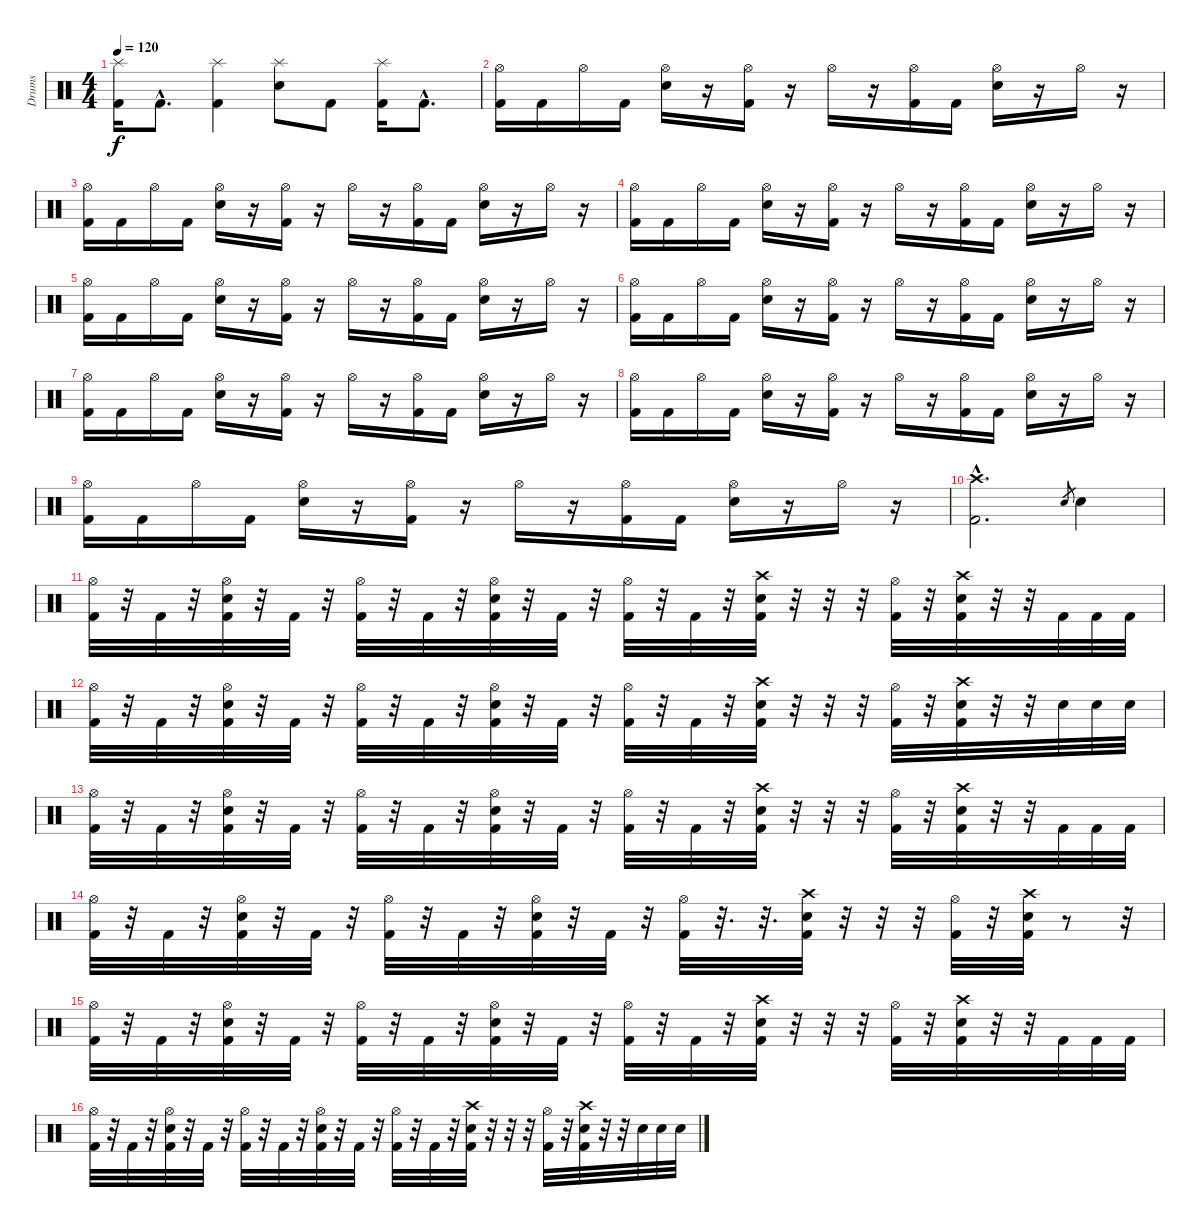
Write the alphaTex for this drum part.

\track ("Drums" "Drums") {instrument percussion}
\staff {score}
\articulation defaults
\ts (4 4)
\tempo 120
\clef neutral
\ks c
("Splash (hit)" "Kick (hit) 2").16{dy f} "Kick (hit) 2"{hac}.8{d} ("Splash (hit)" "Kick (hit) 2").4 ("Splash (hit)" "Snare (hit) 2").8 "Kick (hit) 2".8 ("Splash (hit)" "Kick (hit) 2").16 "Kick (hit) 2"{hac}.8{d} |
("Hi-Hat (open)" "Kick (hit) 2").16 "Kick (hit) 2".16 "Hi-Hat (open)".16 "Kick (hit) 2".16 ("Hi-Hat (open)" "Snare (hit) 2").16 r.16 ("Hi-Hat (open)" "Kick (hit) 2").16 r.16 "Hi-Hat (open)".16 r.16 ("Hi-Hat (open)" "Kick (hit) 2").16 "Kick (hit) 2".16 ("Hi-Hat (open)" "Snare (hit) 2").16 r.16 "Hi-Hat (open)".16 r.16 |
("Hi-Hat (open)" "Kick (hit) 2").16 "Kick (hit) 2".16 "Hi-Hat (open)".16 "Kick (hit) 2".16 ("Hi-Hat (open)" "Snare (hit) 2").16 r.16 ("Hi-Hat (open)" "Kick (hit) 2").16 r.16 "Hi-Hat (open)".16 r.16 ("Hi-Hat (open)" "Kick (hit) 2").16 "Kick (hit) 2".16 ("Hi-Hat (open)" "Snare (hit) 2").16 r.16 "Hi-Hat (open)".16 r.16 |
("Hi-Hat (open)" "Kick (hit) 2").16 "Kick (hit) 2".16 "Hi-Hat (open)".16 "Kick (hit) 2".16 ("Hi-Hat (open)" "Snare (hit) 2").16 r.16 ("Hi-Hat (open)" "Kick (hit) 2").16 r.16 "Hi-Hat (open)".16 r.16 ("Hi-Hat (open)" "Kick (hit) 2").16 "Kick (hit) 2".16 ("Hi-Hat (open)" "Snare (hit) 2").16 r.16 "Hi-Hat (open)".16 r.16 |
("Hi-Hat (open)" "Kick (hit) 2").16 "Kick (hit) 2".16 "Hi-Hat (open)".16 "Kick (hit) 2".16 ("Hi-Hat (open)" "Snare (hit) 2").16 r.16 ("Hi-Hat (open)" "Kick (hit) 2").16 r.16 "Hi-Hat (open)".16 r.16 ("Hi-Hat (open)" "Kick (hit) 2").16 "Kick (hit) 2".16 ("Hi-Hat (open)" "Snare (hit) 2").16 r.16 "Hi-Hat (open)".16 r.16 |
("Hi-Hat (open)" "Kick (hit) 2").16 "Kick (hit) 2".16 "Hi-Hat (open)".16 "Kick (hit) 2".16 ("Hi-Hat (open)" "Snare (hit) 2").16 r.16 ("Hi-Hat (open)" "Kick (hit) 2").16 r.16 "Hi-Hat (open)".16 r.16 ("Hi-Hat (open)" "Kick (hit) 2").16 "Kick (hit) 2".16 ("Hi-Hat (open)" "Snare (hit) 2").16 r.16 "Hi-Hat (open)".16 r.16 |
("Hi-Hat (open)" "Kick (hit) 2").16 "Kick (hit) 2".16 "Hi-Hat (open)".16 "Kick (hit) 2".16 ("Hi-Hat (open)" "Snare (hit) 2").16 r.16 ("Hi-Hat (open)" "Kick (hit) 2").16 r.16 "Hi-Hat (open)".16 r.16 ("Hi-Hat (open)" "Kick (hit) 2").16 "Kick (hit) 2".16 ("Hi-Hat (open)" "Snare (hit) 2").16 r.16 "Hi-Hat (open)".16 r.16 |
("Hi-Hat (open)" "Kick (hit) 2").16 "Kick (hit) 2".16 "Hi-Hat (open)".16 "Kick (hit) 2".16 ("Hi-Hat (open)" "Snare (hit) 2").16 r.16 ("Hi-Hat (open)" "Kick (hit) 2").16 r.16 "Hi-Hat (open)".16 r.16 ("Hi-Hat (open)" "Kick (hit) 2").16 "Kick (hit) 2".16 ("Hi-Hat (open)" "Snare (hit) 2").16 r.16 "Hi-Hat (open)".16 r.16 |
("Hi-Hat (open)" "Kick (hit) 2").16 "Kick (hit) 2".16 "Hi-Hat (open)".16 "Kick (hit) 2".16 ("Hi-Hat (open)" "Snare (hit) 2").16 r.16 ("Hi-Hat (open)" "Kick (hit) 2").16 r.16 "Hi-Hat (open)".16 r.16 ("Hi-Hat (open)" "Kick (hit) 2").16 "Kick (hit) 2".16 ("Hi-Hat (open)" "Snare (hit) 2").16 r.16 "Hi-Hat (open)".16 r.16 |
("Crash high (hit)"{hac} "Kick (hit) 2"{hac}).2{d} "Snare (hit) 2".8{gr} "Snare (hit) 2".4 |
("Hi-Hat (open)" "Kick (hit) 2").32 r.32 "Kick (hit) 2".32 r.32 ("Hi-Hat (open)" "Snare (hit) 2" "Kick (hit) 2").32 r.32 "Kick (hit) 2".32 r.32 ("Hi-Hat (open)" "Kick (hit) 2").32 r.32 "Kick (hit) 2".32 r.32 ("Hi-Hat (open)" "Snare (hit) 2" "Kick (hit) 2").32 r.32 "Kick (hit) 2".32 r.32 ("Hi-Hat (open)" "Kick (hit) 2").32 r.32 "Kick (hit) 2".32 r.32 ("Crash high (hit)" "Snare (hit) 2" "Kick (hit) 2").32 r.32 r.32 r.32 ("Hi-Hat (open)" "Kick (hit) 2").32 r.32 ("Crash high (hit)" "Snare (hit) 2" "Kick (hit) 2").32 r.32 r.32 "Kick (hit) 2".32 "Kick (hit) 2".32 "Kick (hit) 2".32 |
("Hi-Hat (open)" "Kick (hit) 2").32 r.32 "Kick (hit) 2".32 r.32 ("Hi-Hat (open)" "Snare (hit) 2" "Kick (hit) 2").32 r.32 "Kick (hit) 2".32 r.32 ("Hi-Hat (open)" "Kick (hit) 2").32 r.32 "Kick (hit) 2".32 r.32 ("Hi-Hat (open)" "Snare (hit) 2" "Kick (hit) 2").32 r.32 "Kick (hit) 2".32 r.32 ("Hi-Hat (open)" "Kick (hit) 2").32 r.32 "Kick (hit) 2".32 r.32 ("Crash high (hit)" "Snare (hit) 2" "Kick (hit) 2").32 r.32 r.32 r.32 ("Hi-Hat (open)" "Kick (hit) 2").32 r.32 ("Crash high (hit)" "Snare (hit) 2" "Kick (hit) 2").32 r.32 r.32 "Snare (hit) 2".32 "Snare (hit) 2".32 "Snare (hit) 2".32 |
("Hi-Hat (open)" "Kick (hit) 2").32 r.32 "Kick (hit) 2".32 r.32 ("Hi-Hat (open)" "Snare (hit) 2" "Kick (hit) 2").32 r.32 "Kick (hit) 2".32 r.32 ("Hi-Hat (open)" "Kick (hit) 2").32 r.32 "Kick (hit) 2".32 r.32 ("Hi-Hat (open)" "Snare (hit) 2" "Kick (hit) 2").32 r.32 "Kick (hit) 2".32 r.32 ("Hi-Hat (open)" "Kick (hit) 2").32 r.32 "Kick (hit) 2".32 r.32 ("Crash high (hit)" "Snare (hit) 2" "Kick (hit) 2").32 r.32 r.32 r.32 ("Hi-Hat (open)" "Kick (hit) 2").32 r.32 ("Crash high (hit)" "Snare (hit) 2" "Kick (hit) 2").32 r.32 r.32 "Kick (hit) 2".32 "Kick (hit) 2".32 "Kick (hit) 2".32 |
("Hi-Hat (open)" "Kick (hit) 2").32 r.32 "Kick (hit) 2".32 r.32 ("Hi-Hat (open)" "Snare (hit) 2" "Kick (hit) 2").32 r.32 "Kick (hit) 2".32 r.32 ("Hi-Hat (open)" "Kick (hit) 2").32 r.32 "Kick (hit) 2".32 r.32 ("Hi-Hat (open)" "Snare (hit) 2" "Kick (hit) 2").32 r.32 "Kick (hit) 2".32 r.32 ("Hi-Hat (open)" "Kick (hit) 2").32 r.32{d} r.32{d} ("Crash high (hit)" "Snare (hit) 2" "Kick (hit) 2").32 r.32 r.32 r.32 ("Hi-Hat (open)" "Kick (hit) 2").32 r.32 ("Crash high (hit)" "Snare (hit) 2" "Kick (hit) 2").32 r.8 r.32 |
("Hi-Hat (open)" "Kick (hit) 2").32 r.32 "Kick (hit) 2".32 r.32 ("Hi-Hat (open)" "Snare (hit) 2" "Kick (hit) 2").32 r.32 "Kick (hit) 2".32 r.32 ("Hi-Hat (open)" "Kick (hit) 2").32 r.32 "Kick (hit) 2".32 r.32 ("Hi-Hat (open)" "Snare (hit) 2" "Kick (hit) 2").32 r.32 "Kick (hit) 2".32 r.32 ("Hi-Hat (open)" "Kick (hit) 2").32 r.32 "Kick (hit) 2".32 r.32 ("Crash high (hit)" "Snare (hit) 2" "Kick (hit) 2").32 r.32 r.32 r.32 ("Hi-Hat (open)" "Kick (hit) 2").32 r.32 ("Crash high (hit)" "Snare (hit) 2" "Kick (hit) 2").32 r.32 r.32 "Kick (hit) 2".32 "Kick (hit) 2".32 "Kick (hit) 2".32 |
("Hi-Hat (open)" "Kick (hit) 2").32 r.32 "Kick (hit) 2".32 r.32 ("Hi-Hat (open)" "Snare (hit) 2" "Kick (hit) 2").32 r.32 "Kick (hit) 2".32 r.32 ("Hi-Hat (open)" "Kick (hit) 2").32 r.32 "Kick (hit) 2".32 r.32 ("Hi-Hat (open)" "Snare (hit) 2" "Kick (hit) 2").32 r.32 "Kick (hit) 2".32 r.32 ("Hi-Hat (open)" "Kick (hit) 2").32 r.32 "Kick (hit) 2".32 r.32 ("Crash high (hit)" "Snare (hit) 2" "Kick (hit) 2").32 r.32 r.32 r.32 ("Hi-Hat (open)" "Kick (hit) 2").32 r.32 ("Crash high (hit)" "Snare (hit) 2" "Kick (hit) 2").32 r.32 r.32 "Snare (hit) 2".32 "Snare (hit) 2".32 "Snare (hit) 2".32
